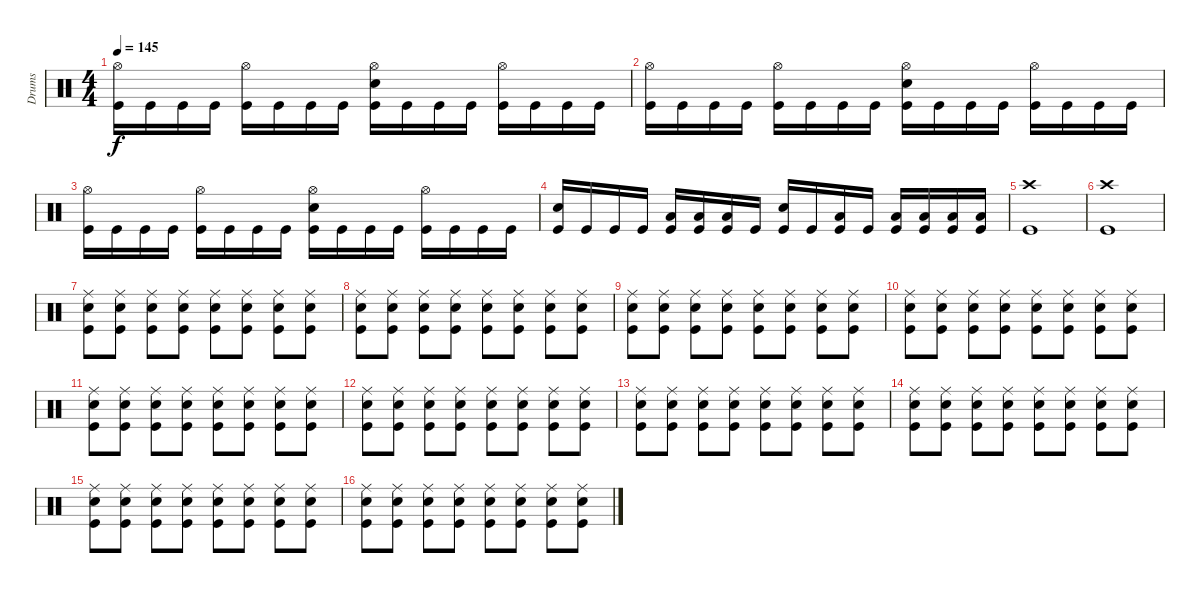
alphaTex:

\track ("Drums" "Drums") {instrument percussion}
\staff {score}
\articulation defaults
\ts (4 4)
\tempo 145
\clef neutral
\ks c
("Hi-Hat (open)" "Kick (hit)").16{dy f} "Kick (hit)".16 "Kick (hit)".16 "Kick (hit)".16 ("Hi-Hat (open)" "Kick (hit)").16 "Kick (hit)".16 "Kick (hit)".16 "Kick (hit)".16 ("Hi-Hat (open)" "Electric Snare (hit)" "Kick (hit)").16 "Kick (hit)".16 "Kick (hit)".16 "Kick (hit)".16 ("Hi-Hat (open)" "Kick (hit)").16 "Kick (hit)".16 "Kick (hit)".16 "Kick (hit)".16 |
("Hi-Hat (open)" "Kick (hit)").16 "Kick (hit)".16 "Kick (hit)".16 "Kick (hit)".16 ("Hi-Hat (open)" "Kick (hit)").16 "Kick (hit)".16 "Kick (hit)".16 "Kick (hit)".16 ("Hi-Hat (open)" "Electric Snare (hit)" "Kick (hit)").16 "Kick (hit)".16 "Kick (hit)".16 "Kick (hit)".16 ("Hi-Hat (open)" "Kick (hit)").16 "Kick (hit)".16 "Kick (hit)".16 "Kick (hit)".16 |
("Hi-Hat (open)" "Kick (hit)").16 "Kick (hit)".16 "Kick (hit)".16 "Kick (hit)".16 ("Hi-Hat (open)" "Kick (hit)").16 "Kick (hit)".16 "Kick (hit)".16 "Kick (hit)".16 ("Hi-Hat (open)" "Electric Snare (hit)" "Kick (hit)").16 "Kick (hit)".16 "Kick (hit)".16 "Kick (hit)".16 ("Hi-Hat (open)" "Kick (hit)").16 "Kick (hit)".16 "Kick (hit)".16 "Kick (hit)".16 |
("Electric Snare (hit)" "Kick (hit)").16 "Kick (hit)".16 "Kick (hit)".16 "Kick (hit)".16 ("Low Tom (hit)" "Kick (hit)").16 ("Low Tom (hit)" "Kick (hit)").16 ("Low Tom (hit)" "Kick (hit)").16 "Kick (hit)".16 ("Electric Snare (hit)" "Kick (hit)").16 "Kick (hit)".16 ("Low Tom (hit)" "Kick (hit)").16 "Kick (hit)".16 ("Low Tom (hit)" "Kick (hit)").16 ("Low Tom (hit)" "Kick (hit)").16 ("Low Tom (hit)" "Kick (hit)").16 ("Low Tom (hit)" "Kick (hit)").16 |
("Crash high (hit)" "Kick (hit)").1 |
("Crash high (hit)" "Kick (hit)").1 |
("Ride (middle)" "Electric Snare (hit)" "Kick (hit)").8 ("Ride (middle)" "Electric Snare (hit)" "Kick (hit)").8 ("Ride (middle)" "Electric Snare (hit)" "Kick (hit)").8 ("Ride (middle)" "Electric Snare (hit)" "Kick (hit)").8 ("Ride (middle)" "Electric Snare (hit)" "Kick (hit)").8 ("Ride (middle)" "Electric Snare (hit)" "Kick (hit)").8 ("Ride (middle)" "Electric Snare (hit)" "Kick (hit)").8 ("Ride (middle)" "Electric Snare (hit)" "Kick (hit)").8 |
("Ride (middle)" "Electric Snare (hit)" "Kick (hit)").8 ("Ride (middle)" "Electric Snare (hit)" "Kick (hit)").8 ("Ride (middle)" "Electric Snare (hit)" "Kick (hit)").8 ("Ride (middle)" "Electric Snare (hit)" "Kick (hit)").8 ("Ride (middle)" "Electric Snare (hit)" "Kick (hit)").8 ("Ride (middle)" "Electric Snare (hit)" "Kick (hit)").8 ("Ride (middle)" "Electric Snare (hit)" "Kick (hit)").8 ("Ride (middle)" "Electric Snare (hit)" "Kick (hit)").8 |
("Ride (middle)" "Electric Snare (hit)" "Kick (hit)").8 ("Ride (middle)" "Electric Snare (hit)" "Kick (hit)").8 ("Ride (middle)" "Electric Snare (hit)" "Kick (hit)").8 ("Ride (middle)" "Electric Snare (hit)" "Kick (hit)").8 ("Ride (middle)" "Electric Snare (hit)" "Kick (hit)").8 ("Ride (middle)" "Electric Snare (hit)" "Kick (hit)").8 ("Ride (middle)" "Electric Snare (hit)" "Kick (hit)").8 ("Ride (middle)" "Electric Snare (hit)" "Kick (hit)").8 |
("Ride (middle)" "Electric Snare (hit)" "Kick (hit)").8 ("Ride (middle)" "Electric Snare (hit)" "Kick (hit)").8 ("Ride (middle)" "Electric Snare (hit)" "Kick (hit)").8 ("Ride (middle)" "Electric Snare (hit)" "Kick (hit)").8 ("Ride (middle)" "Electric Snare (hit)" "Kick (hit)").8 ("Ride (middle)" "Electric Snare (hit)" "Kick (hit)").8 ("Ride (middle)" "Electric Snare (hit)" "Kick (hit)").8 ("Ride (middle)" "Electric Snare (hit)" "Kick (hit)").8 |
("Ride (middle)" "Electric Snare (hit)" "Kick (hit)").8 ("Ride (middle)" "Electric Snare (hit)" "Kick (hit)").8 ("Ride (middle)" "Electric Snare (hit)" "Kick (hit)").8 ("Ride (middle)" "Electric Snare (hit)" "Kick (hit)").8 ("Ride (middle)" "Electric Snare (hit)" "Kick (hit)").8 ("Ride (middle)" "Electric Snare (hit)" "Kick (hit)").8 ("Ride (middle)" "Electric Snare (hit)" "Kick (hit)").8 ("Ride (middle)" "Electric Snare (hit)" "Kick (hit)").8 |
("Ride (middle)" "Electric Snare (hit)" "Kick (hit)").8 ("Ride (middle)" "Electric Snare (hit)" "Kick (hit)").8 ("Ride (middle)" "Electric Snare (hit)" "Kick (hit)").8 ("Ride (middle)" "Electric Snare (hit)" "Kick (hit)").8 ("Ride (middle)" "Electric Snare (hit)" "Kick (hit)").8 ("Ride (middle)" "Electric Snare (hit)" "Kick (hit)").8 ("Ride (middle)" "Electric Snare (hit)" "Kick (hit)").8 ("Ride (middle)" "Electric Snare (hit)" "Kick (hit)").8 |
("Ride (middle)" "Electric Snare (hit)" "Kick (hit)").8 ("Ride (middle)" "Electric Snare (hit)" "Kick (hit)").8 ("Ride (middle)" "Electric Snare (hit)" "Kick (hit)").8 ("Ride (middle)" "Electric Snare (hit)" "Kick (hit)").8 ("Ride (middle)" "Electric Snare (hit)" "Kick (hit)").8 ("Ride (middle)" "Electric Snare (hit)" "Kick (hit)").8 ("Ride (middle)" "Electric Snare (hit)" "Kick (hit)").8 ("Ride (middle)" "Electric Snare (hit)" "Kick (hit)").8 |
("Ride (middle)" "Electric Snare (hit)" "Kick (hit)").8 ("Ride (middle)" "Electric Snare (hit)" "Kick (hit)").8 ("Ride (middle)" "Electric Snare (hit)" "Kick (hit)").8 ("Ride (middle)" "Electric Snare (hit)" "Kick (hit)").8 ("Ride (middle)" "Electric Snare (hit)" "Kick (hit)").8 ("Ride (middle)" "Electric Snare (hit)" "Kick (hit)").8 ("Ride (middle)" "Electric Snare (hit)" "Kick (hit)").8 ("Ride (middle)" "Electric Snare (hit)" "Kick (hit)").8 |
("Ride (middle)" "Electric Snare (hit)" "Kick (hit)").8 ("Ride (middle)" "Electric Snare (hit)" "Kick (hit)").8 ("Ride (middle)" "Electric Snare (hit)" "Kick (hit)").8 ("Ride (middle)" "Electric Snare (hit)" "Kick (hit)").8 ("Ride (middle)" "Electric Snare (hit)" "Kick (hit)").8 ("Ride (middle)" "Electric Snare (hit)" "Kick (hit)").8 ("Ride (middle)" "Electric Snare (hit)" "Kick (hit)").8 ("Ride (middle)" "Electric Snare (hit)" "Kick (hit)").8 |
("Ride (middle)" "Electric Snare (hit)" "Kick (hit)").8 ("Ride (middle)" "Electric Snare (hit)" "Kick (hit)").8 ("Ride (middle)" "Electric Snare (hit)" "Kick (hit)").8 ("Ride (middle)" "Electric Snare (hit)" "Kick (hit)").8 ("Ride (middle)" "Electric Snare (hit)" "Kick (hit)").8 ("Ride (middle)" "Electric Snare (hit)" "Kick (hit)").8 ("Ride (middle)" "Electric Snare (hit)" "Kick (hit)").8 ("Ride (middle)" "Electric Snare (hit)" "Kick (hit)").8
